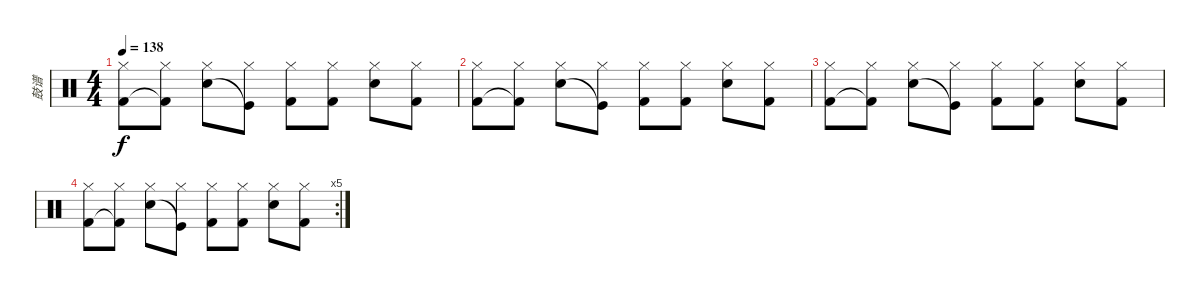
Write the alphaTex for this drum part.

\track ("鼓谱" "鼓谱") {instrument percussion}
\staff {score}
\articulation defaults
\ts (4 4)
\tempo 138
\clef neutral
\ks c
("Kick (hit) 2" "Hi-Hat (closed)").8{dy f} ("Kick (hit) 2"{t} "Hi-Hat (closed)").8 ("Snare (hit) 2" "Hi-Hat (closed)").8 ("Kick (hit)"{t} "Hi-Hat (closed)").8 ("Kick (hit) 2" "Hi-Hat (closed)").8 ("Kick (hit) 2" "Hi-Hat (closed)").8 ("Snare (hit) 2" "Hi-Hat (closed)").8 ("Kick (hit) 2" "Hi-Hat (closed)").8 |
("Kick (hit) 2" "Hi-Hat (closed)").8 ("Kick (hit) 2"{t} "Hi-Hat (closed)").8 ("Snare (hit) 2" "Hi-Hat (closed)").8 ("Kick (hit)"{t} "Hi-Hat (closed)").8 ("Kick (hit) 2" "Hi-Hat (closed)").8 ("Kick (hit) 2" "Hi-Hat (closed)").8 ("Snare (hit) 2" "Hi-Hat (closed)").8 ("Kick (hit) 2" "Hi-Hat (closed)").8 |
("Kick (hit) 2" "Hi-Hat (closed)").8 ("Kick (hit) 2"{t} "Hi-Hat (closed)").8 ("Snare (hit) 2" "Hi-Hat (closed)").8 ("Kick (hit)"{t} "Hi-Hat (closed)").8 ("Kick (hit) 2" "Hi-Hat (closed)").8 ("Kick (hit) 2" "Hi-Hat (closed)").8 ("Snare (hit) 2" "Hi-Hat (closed)").8 ("Kick (hit) 2" "Hi-Hat (closed)").8 |
\rc 5
("Kick (hit) 2" "Hi-Hat (closed)").8 ("Kick (hit) 2"{t} "Hi-Hat (closed)").8 ("Snare (hit) 2" "Hi-Hat (closed)").8 ("Kick (hit)"{t} "Hi-Hat (closed)").8 ("Kick (hit) 2" "Hi-Hat (closed)").8 ("Kick (hit) 2" "Hi-Hat (closed)").8 ("Snare (hit) 2" "Hi-Hat (closed)").8 ("Kick (hit) 2" "Hi-Hat (closed)").8
